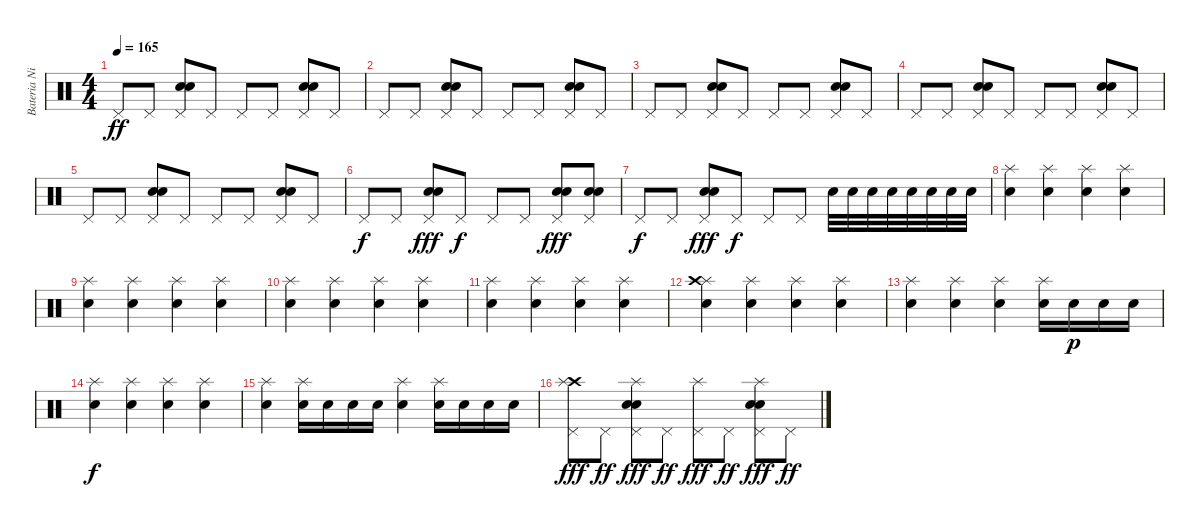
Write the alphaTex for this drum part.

\track ("Bateria Nicolas Cabrera" "Bateria Ni") {instrument percussion}
\staff {score}
\articulation defaults
\ts (4 4)
\tempo 165
\clef neutral
\ks c "Pedal Hi-Hat (hit)".8{dy ff} "Pedal Hi-Hat (hit)".8
("Electric Snare (hit)" "Electric Snare (hit)" "Pedal Hi-Hat (hit)").8 "Pedal Hi-Hat (hit)".8 "Pedal Hi-Hat (hit)".8 "Pedal Hi-Hat (hit)".8 ("Electric Snare (hit)" "Electric Snare (hit)" "Pedal Hi-Hat (hit)").8 "Pedal Hi-Hat (hit)".8 |
"Pedal Hi-Hat (hit)".8 "Pedal Hi-Hat (hit)".8 ("Electric Snare (hit)" "Electric Snare (hit)" "Pedal Hi-Hat (hit)").8 "Pedal Hi-Hat (hit)".8 "Pedal Hi-Hat (hit)".8 "Pedal Hi-Hat (hit)".8 ("Electric Snare (hit)" "Electric Snare (hit)" "Pedal Hi-Hat (hit)").8 "Pedal Hi-Hat (hit)".8 |
"Pedal Hi-Hat (hit)".8 "Pedal Hi-Hat (hit)".8 ("Electric Snare (hit)" "Electric Snare (hit)" "Pedal Hi-Hat (hit)").8 "Pedal Hi-Hat (hit)".8 "Pedal Hi-Hat (hit)".8 "Pedal Hi-Hat (hit)".8 ("Electric Snare (hit)" "Electric Snare (hit)" "Pedal Hi-Hat (hit)").8 "Pedal Hi-Hat (hit)".8 |
"Pedal Hi-Hat (hit)".8 "Pedal Hi-Hat (hit)".8 ("Electric Snare (hit)" "Electric Snare (hit)" "Pedal Hi-Hat (hit)").8 "Pedal Hi-Hat (hit)".8 "Pedal Hi-Hat (hit)".8 "Pedal Hi-Hat (hit)".8 ("Electric Snare (hit)" "Electric Snare (hit)" "Pedal Hi-Hat (hit)").8 "Pedal Hi-Hat (hit)".8 |
"Pedal Hi-Hat (hit)".8 "Pedal Hi-Hat (hit)".8 ("Electric Snare (hit)" "Electric Snare (hit)" "Pedal Hi-Hat (hit)").8 "Pedal Hi-Hat (hit)".8 "Pedal Hi-Hat (hit)".8 "Pedal Hi-Hat (hit)".8 ("Electric Snare (hit)" "Electric Snare (hit)" "Pedal Hi-Hat (hit)").8 "Pedal Hi-Hat (hit)".8 |
"Pedal Hi-Hat (hit)".8{dy f} "Pedal Hi-Hat (hit)".8 ("Electric Snare (hit)" "Electric Snare (hit)" "Pedal Hi-Hat (hit)").8{dy fff} "Pedal Hi-Hat (hit)".8{dy f} "Pedal Hi-Hat (hit)".8 "Pedal Hi-Hat (hit)".8 ("Electric Snare (hit)" "Electric Snare (hit)" "Pedal Hi-Hat (hit)").8{dy fff} ("Electric Snare (hit)" "Electric Snare (hit)" "Pedal Hi-Hat (hit)").8 |
"Pedal Hi-Hat (hit)".8{dy f} "Pedal Hi-Hat (hit)".8 ("Electric Snare (hit)" "Electric Snare (hit)" "Pedal Hi-Hat (hit)").8{dy fff} "Pedal Hi-Hat (hit)".8{dy f} "Pedal Hi-Hat (hit)".8 "Pedal Hi-Hat (hit)".8 "Electric Snare (hit)".32 "Electric Snare (hit)".32 "Electric Snare (hit)".32 "Snare (hit) 2".32 "Electric Snare (hit)".32 "Electric Snare (hit)".32 "Electric Snare (hit)".32 "Electric Snare (hit)".32 |
("Electric Snare (hit)" "Splash (hit)").4 ("Electric Snare (hit)" "Splash (hit)").4 ("Electric Snare (hit)" "Splash (hit)").4 ("Electric Snare (hit)" "Splash (hit)").4 |
("Electric Snare (hit)" "Splash (hit)").4 ("Electric Snare (hit)" "Splash (hit)").4 ("Electric Snare (hit)" "Splash (hit)").4 ("Electric Snare (hit)" "Splash (hit)").4 |
("Electric Snare (hit)" "Splash (hit)").4 ("Electric Snare (hit)" "Splash (hit)").4 ("Electric Snare (hit)" "Splash (hit)").4 ("Electric Snare (hit)" "Splash (hit)").4 |
("Electric Snare (hit)" "Splash (hit)").4 ("Electric Snare (hit)" "Splash (hit)").4 ("Electric Snare (hit)" "Splash (hit)").4 ("Electric Snare (hit)" "Splash (hit)").4 |
("Electric Snare (hit)" "Splash (hit)" "Crash high (hit)").4 ("Electric Snare (hit)" "Splash (hit)").4 ("Electric Snare (hit)" "Splash (hit)").4 ("Electric Snare (hit)" "Splash (hit)").4 |
("Electric Snare (hit)" "Splash (hit)").4 ("Electric Snare (hit)" "Splash (hit)").4 ("Electric Snare (hit)" "Splash (hit)").4 ("Electric Snare (hit)" "Splash (hit)").16 "Electric Snare (hit)".16{dy p} "Electric Snare (hit)".16 "Electric Snare (hit)".16 |
("Electric Snare (hit)" "Splash (hit)").4{dy f} ("Electric Snare (hit)" "Splash (hit)").4 ("Electric Snare (hit)" "Splash (hit)").4 ("Electric Snare (hit)" "Splash (hit)").4 |
("Electric Snare (hit)" "Splash (hit)").4 ("Splash (hit)" "Electric Snare (hit)").16 "Electric Snare (hit)".16 "Electric Snare (hit)".16 "Electric Snare (hit)".16 ("Splash (hit)" "Electric Snare (hit)").4 ("Splash (hit)" "Electric Snare (hit)").16 "Electric Snare (hit)".16 "Electric Snare (hit)".16 "Electric Snare (hit)".16 |
("Crash high (hit)" "Pedal Hi-Hat (hit)" "Splash (hit)").8{dy fff} "Pedal Hi-Hat (hit)".8{dy ff} ("Electric Snare (hit)" "Electric Snare (hit)" "Pedal Hi-Hat (hit)" "Splash (hit)").8{dy fff} "Pedal Hi-Hat (hit)".8{dy ff} ("Pedal Hi-Hat (hit)" "Splash (hit)").8{dy fff} "Pedal Hi-Hat (hit)".8{dy ff} ("Electric Snare (hit)" "Electric Snare (hit)" "Pedal Hi-Hat (hit)" "Splash (hit)").8{dy fff} "Pedal Hi-Hat (hit)".8{dy ff}
